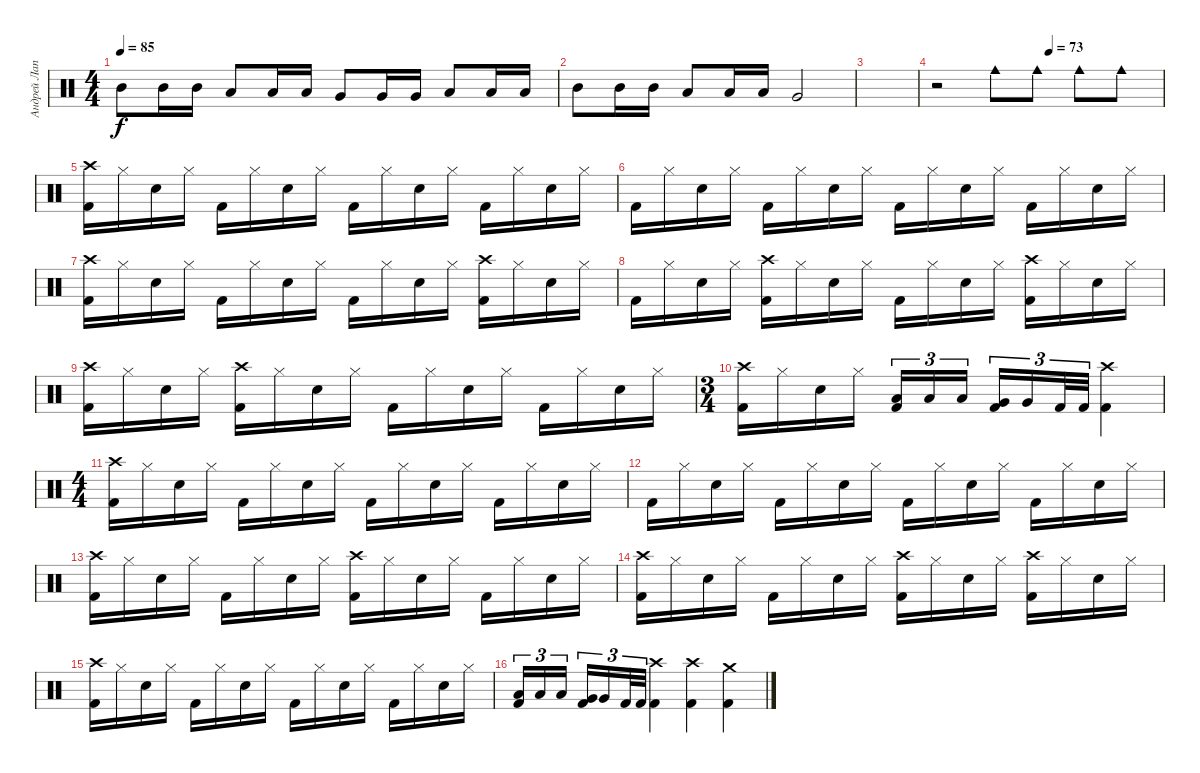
\track ("Андрей Лаптев" "Андрей Лап") {instrument percussion}
\staff {score}
\articulation defaults
\ts (4 4)
\tempo 85
\clef neutral
\ks c "Mid Tom (hit)".8{dy f} "Mid Tom (hit)".16 "Mid Tom (hit)".16 "Low Tom (hit)".8 "Low Tom (hit)".16 "Low Tom (hit)".16 "Very Low Tom (hit)".8 "Very Low Tom (hit)".16 "Very Low Tom (hit)".16 "Low Floor Tom (hit)".8 "Low Floor Tom (hit)".16 "Low Floor Tom (hit)".16
|
"Mid Tom (hit)".8 "Mid Tom (hit)".16 "Mid Tom (hit)".16 "Low Tom (hit)".8 "Low Tom (hit)".16 "Low Tom (hit)".16 "Very Low Tom (hit)".2 |
|
\tempo (73 0.5)
r.2 "Cowbell medium (hit)".8 "Cowbell medium (hit)".8 "Cowbell medium (hit)".8 "Cowbell medium (hit)".8 |
("Crash high (hit)" "Kick (hit) 2").16 "Hi-Hat (closed)".16 "Electric Snare (hit)".16 "Hi-Hat (closed)".16 "Kick (hit) 2".16 "Hi-Hat (closed)".16 "Electric Snare (hit)".16 "Hi-Hat (closed)".16 "Kick (hit) 2".16 "Hi-Hat (closed)".16 "Electric Snare (hit)".16 "Hi-Hat (closed)".16 "Kick (hit) 2".16 "Hi-Hat (closed)".16 "Electric Snare (hit)".16 "Hi-Hat (closed)".16 |
"Kick (hit) 2".16 "Hi-Hat (closed)".16 "Electric Snare (hit)".16 "Hi-Hat (closed)".16 "Kick (hit) 2".16 "Hi-Hat (closed)".16 "Electric Snare (hit)".16 "Hi-Hat (closed)".16 "Kick (hit) 2".16 "Hi-Hat (closed)".16 "Electric Snare (hit)".16 "Hi-Hat (closed)".16 "Kick (hit) 2".16 "Hi-Hat (closed)".16 "Electric Snare (hit)".16 "Hi-Hat (closed)".16 |
("Crash high (hit)" "Kick (hit) 2").16 "Hi-Hat (closed)".16 "Electric Snare (hit)".16 "Hi-Hat (closed)".16 "Kick (hit) 2".16 "Hi-Hat (closed)".16 "Electric Snare (hit)".16 "Hi-Hat (closed)".16 "Kick (hit) 2".16 "Hi-Hat (closed)".16 "Electric Snare (hit)".16 "Hi-Hat (closed)".16 ("Crash high (hit)" "Kick (hit) 2").16 "Hi-Hat (closed)".16 "Electric Snare (hit)".16 "Hi-Hat (closed)".16 |
"Kick (hit) 2".16 "Hi-Hat (closed)".16 "Electric Snare (hit)".16 "Hi-Hat (closed)".16 ("Crash high (hit)" "Kick (hit) 2").16 "Hi-Hat (closed)".16 "Electric Snare (hit)".16 "Hi-Hat (closed)".16 "Kick (hit) 2".16 "Hi-Hat (closed)".16 "Electric Snare (hit)".16 "Hi-Hat (closed)".16 ("Crash high (hit)" "Kick (hit) 2").16 "Hi-Hat (closed)".16 "Electric Snare (hit)".16 "Hi-Hat (closed)".16 |
("Crash high (hit)" "Kick (hit) 2").16 "Hi-Hat (closed)".16 "Electric Snare (hit)".16 "Hi-Hat (closed)".16 ("Crash high (hit)" "Kick (hit) 2").16 "Hi-Hat (closed)".16 "Electric Snare (hit)".16 "Hi-Hat (closed)".16 "Kick (hit) 2".16 "Hi-Hat (closed)".16 "Electric Snare (hit)".16 "Hi-Hat (closed)".16 "Kick (hit) 2".16 "Hi-Hat (closed)".16 "Electric Snare (hit)".16 "Hi-Hat (closed)".16 |
\ts (3 4)
("Crash high (hit)" "Kick (hit) 2").16 "Hi-Hat (closed)".16 "Electric Snare (hit)".16 "Hi-Hat (closed)".16 ("Low Tom (hit)" "Kick (hit) 2").16{tu (3 2)} "Low Tom (hit)".16{tu (3 2)} "Low Tom (hit)".16{tu (3 2) beam splitsecondary} ("Very Low Tom (hit)" "Kick (hit) 2").16{tu (3 2)} "Very Low Tom (hit)".16{tu (3 2)} "Kick (hit) 2".32{tu (3 2)} "Kick (hit) 2".32{tu (3 2)} ("Crash high (hit)" "Kick (hit) 2").4 |
\ts (4 4)
("Crash high (hit)" "Kick (hit) 2").16 "Hi-Hat (closed)".16 "Electric Snare (hit)".16 "Hi-Hat (closed)".16 "Kick (hit) 2".16 "Hi-Hat (closed)".16 "Electric Snare (hit)".16 "Hi-Hat (closed)".16 "Kick (hit) 2".16 "Hi-Hat (closed)".16 "Electric Snare (hit)".16 "Hi-Hat (closed)".16 "Kick (hit) 2".16 "Hi-Hat (closed)".16 "Electric Snare (hit)".16 "Hi-Hat (closed)".16 |
"Kick (hit) 2".16 "Hi-Hat (closed)".16 "Electric Snare (hit)".16 "Hi-Hat (closed)".16 "Kick (hit) 2".16 "Hi-Hat (closed)".16 "Electric Snare (hit)".16 "Hi-Hat (closed)".16 "Kick (hit) 2".16 "Hi-Hat (closed)".16 "Electric Snare (hit)".16 "Hi-Hat (closed)".16 "Kick (hit) 2".16 "Hi-Hat (closed)".16 "Electric Snare (hit)".16 "Hi-Hat (closed)".16 |
("Crash high (hit)" "Kick (hit) 2").16 "Hi-Hat (closed)".16 "Electric Snare (hit)".16 "Hi-Hat (closed)".16 "Kick (hit) 2".16 "Hi-Hat (closed)".16 "Electric Snare (hit)".16 "Hi-Hat (closed)".16 ("Crash high (hit)" "Kick (hit) 2").16 "Hi-Hat (closed)".16 "Electric Snare (hit)".16 "Hi-Hat (closed)".16 "Kick (hit) 2".16 "Hi-Hat (closed)".16 "Electric Snare (hit)".16 "Hi-Hat (closed)".16 |
("Crash high (hit)" "Kick (hit) 2").16 "Hi-Hat (closed)".16 "Electric Snare (hit)".16 "Hi-Hat (closed)".16 "Kick (hit) 2".16 "Hi-Hat (closed)".16 "Electric Snare (hit)".16 "Hi-Hat (closed)".16 ("Crash high (hit)" "Kick (hit) 2").16 "Hi-Hat (closed)".16 "Electric Snare (hit)".16 "Hi-Hat (closed)".16 ("Crash high (hit)" "Kick (hit) 2").16 "Hi-Hat (closed)".16 "Electric Snare (hit)".16 "Hi-Hat (closed)".16 |
("Crash high (hit)" "Kick (hit) 2").16 "Hi-Hat (closed)".16 "Electric Snare (hit)".16 "Hi-Hat (closed)".16 "Kick (hit) 2".16 "Hi-Hat (closed)".16 "Electric Snare (hit)".16 "Hi-Hat (closed)".16 "Kick (hit) 2".16 "Hi-Hat (closed)".16 "Electric Snare (hit)".16 "Hi-Hat (closed)".16 "Kick (hit) 2".16 "Hi-Hat (closed)".16 "Electric Snare (hit)".16 "Hi-Hat (closed)".16 |
("Low Tom (hit)" "Kick (hit) 2").16{tu (3 2)} "Low Tom (hit)".16{tu (3 2)} "Low Tom (hit)".16{tu (3 2) beam splitsecondary} ("Very Low Tom (hit)" "Kick (hit) 2").16{tu (3 2)} "Very Low Tom (hit)".16{tu (3 2)} "Kick (hit) 2".32{tu (3 2)} "Kick (hit) 2".32{tu (3 2)} ("Crash high (hit)" "Kick (hit) 2").4 ("Crash high (hit)" "Kick (hit) 2").4 ("Crash medium (hit)" "Kick (hit) 2").4
